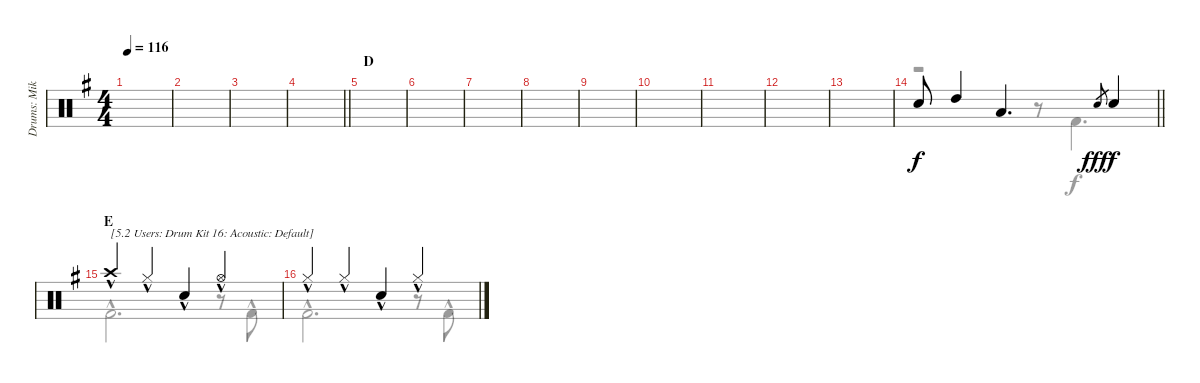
\track ("Drums: Mike" "Drums: Mik") {instrument percussion}
\staff {score}
\articulation defaults
\voice
\ts (4 4)
\tempo 116
\clef neutral
\ks g
|
|
|
\barLineRight lightlight
|
\section ("" "D")
|
|
|
|
|
|
|
|
|
\barLineRight lightlight "Snare (hit) 2".8 "High Tom (hit)".4 "Low Tom (hit)".4{d} "Electric Snare (hit)".8{gr dy fff} "Snare (hit) 2".4{dy f}
|
\section ("" "E")
"Crash high (hit)"{hac}.4{txt "[5.2 Users: Drum Kit 16: Acoustic: Default]"} "Hi-Hat (closed)"{hac}.4 "Snare (hit) 2"{hac}.4 "Hi-Hat (open)"{hac}.4 |
"Hi-Hat (closed)"{hac}.4 "Hi-Hat (closed)"{hac}.4 "Snare (hit) 2"{hac}.4 "Hi-Hat (closed)"{hac}.4
\voice
\clef neutral
\ottava regular
\simile none
\ks g
|
|
|
\barLineRight lightlight
|
|
|
|
|
|
|
|
|
|
\barLineRight lightlight
r.2 r.8 "Kick (hit) 2".4{d} |
"Kick (hit) 2"{hac}.2{d} r.8 "Kick (hit) 2"{hac}.8 |
"Kick (hit) 2"{hac}.2{d} r.8 "Kick (hit) 2"{hac}.8
